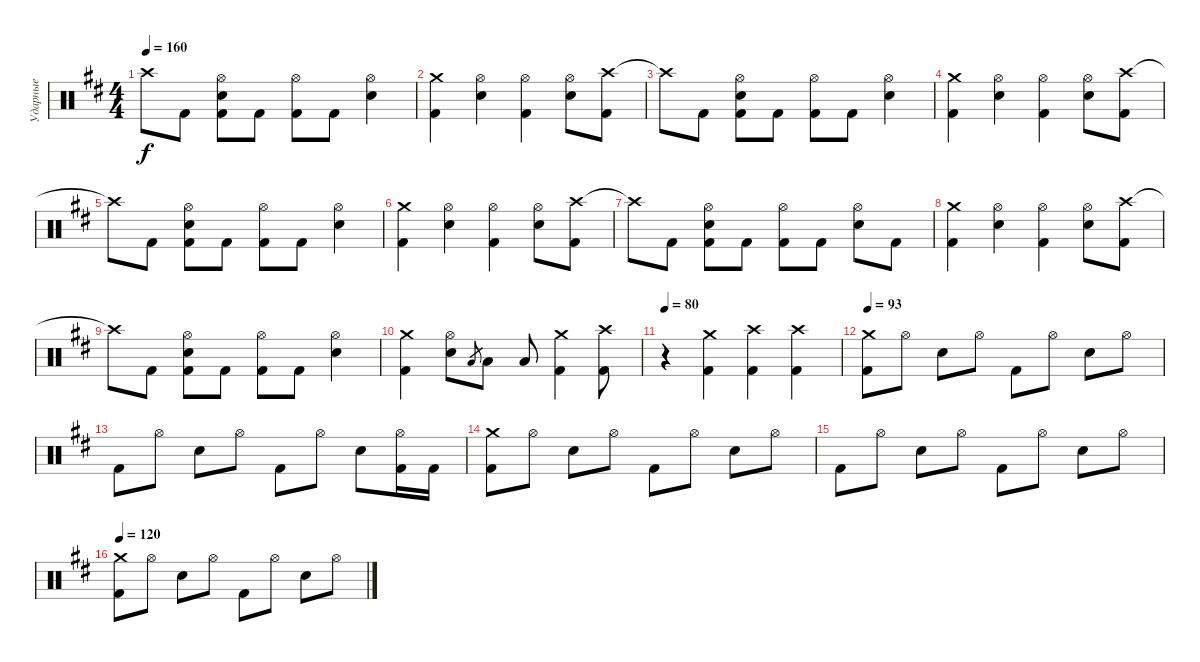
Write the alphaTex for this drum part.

\track ("Ударные" "Ударные") {instrument percussion}
\staff {score}
\articulation defaults
\ts (4 4)
\tempo 160
\clef neutral
\ks bminor "Crash high (hit)"{t}.8{dy f} "Kick (hit) 2".8
("Snare (hit) 2" "Hi-Hat (open)" "Kick (hit) 2").8 "Kick (hit) 2".8 ("Hi-Hat (open)" "Kick (hit) 2").8 "Kick (hit) 2".8 ("Snare (hit) 2" "Hi-Hat (open)").4 |
("Crash medium (hit)" "Kick (hit) 2").4 ("Hi-Hat (open)" "Snare (hit) 2").4 ("Hi-Hat (open)" "Kick (hit) 2").4 ("Hi-Hat (open)" "Snare (hit) 2").8 ("Crash high (hit)" "Kick (hit) 2").8 |
"Crash high (hit)"{t}.8 "Kick (hit) 2".8 ("Snare (hit) 2" "Hi-Hat (open)" "Kick (hit) 2").8 "Kick (hit) 2".8 ("Hi-Hat (open)" "Kick (hit) 2").8 "Kick (hit) 2".8 ("Snare (hit) 2" "Hi-Hat (open)").4 |
("Crash medium (hit)" "Kick (hit) 2").4 ("Hi-Hat (open)" "Snare (hit) 2").4 ("Hi-Hat (open)" "Kick (hit) 2").4 ("Hi-Hat (open)" "Snare (hit) 2").8 ("Crash high (hit)" "Kick (hit) 2").8 |
"Crash high (hit)"{t}.8 "Kick (hit) 2".8 ("Snare (hit) 2" "Hi-Hat (open)" "Kick (hit) 2").8 "Kick (hit) 2".8 ("Hi-Hat (open)" "Kick (hit) 2").8 "Kick (hit) 2".8 ("Snare (hit) 2" "Hi-Hat (open)").4 |
("Crash medium (hit)" "Kick (hit) 2").4 ("Hi-Hat (open)" "Snare (hit) 2").4 ("Hi-Hat (open)" "Kick (hit) 2").4 ("Hi-Hat (open)" "Snare (hit) 2").8 ("Crash high (hit)" "Kick (hit) 2").8 |
"Crash high (hit)"{t}.8 "Kick (hit) 2".8 ("Snare (hit) 2" "Hi-Hat (open)" "Kick (hit) 2").8 "Kick (hit) 2".8 ("Hi-Hat (open)" "Kick (hit) 2").8 "Kick (hit) 2".8 ("Snare (hit) 2" "Hi-Hat (open)").8 "Kick (hit) 2".8 |
("Crash medium (hit)" "Kick (hit) 2").4 ("Hi-Hat (open)" "Snare (hit) 2").4 ("Hi-Hat (open)" "Kick (hit) 2").4 ("Hi-Hat (open)" "Snare (hit) 2").8 ("Crash high (hit)" "Kick (hit) 2").8 |
"Crash high (hit)"{t}.8 "Kick (hit) 2".8 ("Snare (hit) 2" "Hi-Hat (open)" "Kick (hit) 2").8 "Kick (hit) 2".8 ("Hi-Hat (open)" "Kick (hit) 2").8 "Kick (hit) 2".8 ("Snare (hit) 2" "Hi-Hat (open)").4 |
("Crash medium (hit)" "Kick (hit) 2").4 ("Hi-Hat (open)" "Snare (hit) 2").8 "Low Tom (hit)".8{gr} "Low Tom (hit)".8 "Low Tom (hit)".8 ("Kick (hit) 2" "Crash medium (hit)").4 ("Crash high (hit)" "Kick (hit) 2").8 |
\tempo 80
r.4 ("Crash medium (hit)" "Kick (hit) 2").4 ("Crash high (hit)" "Kick (hit) 2").4 ("Crash high (hit)" "Kick (hit) 2").4 |
\tempo 93
("Kick (hit) 2" "Crash medium (hit)").8 "Hi-Hat (open)".8 "Snare (hit) 2".8 "Hi-Hat (open)".8 "Kick (hit) 2".8 "Hi-Hat (open)".8 "Snare (hit) 2".8 "Hi-Hat (open)".8 |
"Kick (hit) 2".8 "Hi-Hat (open)".8 "Snare (hit) 2".8 "Hi-Hat (open)".8 "Kick (hit) 2".8 "Hi-Hat (open)".8 "Snare (hit) 2".8 ("Kick (hit) 2" "Hi-Hat (open)").16 "Kick (hit) 2".16 |
("Kick (hit) 2" "Crash medium (hit)").8 "Hi-Hat (open)".8 "Snare (hit) 2".8 "Hi-Hat (open)".8 "Kick (hit) 2".8 "Hi-Hat (open)".8 "Snare (hit) 2".8 "Hi-Hat (open)".8 |
"Kick (hit) 2".8 "Hi-Hat (open)".8 "Snare (hit) 2".8 "Hi-Hat (open)".8 "Kick (hit) 2".8 "Hi-Hat (open)".8 "Snare (hit) 2".8 "Hi-Hat (open)".8 |
\tempo 120
("Kick (hit) 2" "Crash medium (hit)").8 "Hi-Hat (open)".8 "Snare (hit) 2".8 "Hi-Hat (open)".8 "Kick (hit) 2".8 "Hi-Hat (open)".8 "Snare (hit) 2".8 "Hi-Hat (open)".8
